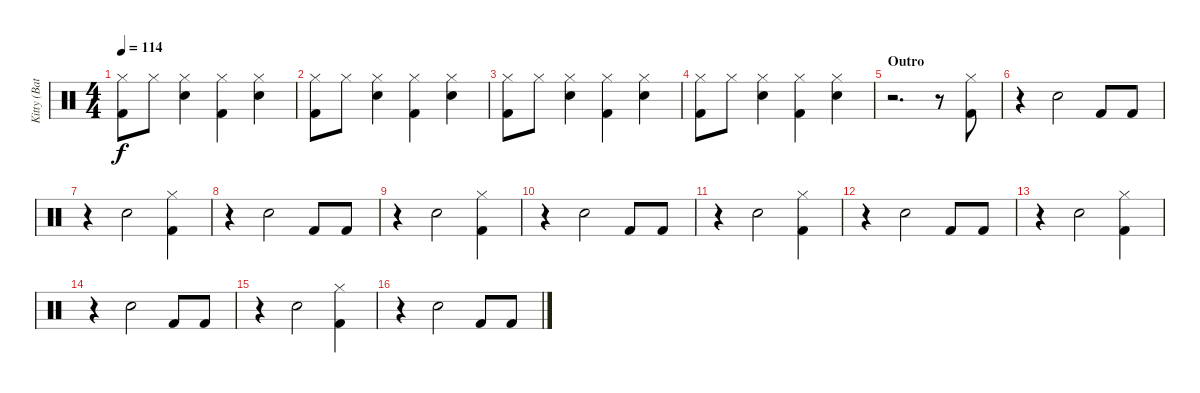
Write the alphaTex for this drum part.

\track ("Kitty (Bataca)" "Kitty (Bat") {instrument percussion}
\staff {score}
\articulation defaults
\ts (4 4)
\tempo 114
\clef neutral
\ks c
("Hi-Hat (closed)" "Kick (hit) 2").8{dy f} "Hi-Hat (closed)".8 ("Hi-Hat (closed)" "Snare (hit) 2").4 ("Hi-Hat (closed)" "Kick (hit) 2").4 ("Hi-Hat (closed)" "Snare (hit) 2").4 |
("Hi-Hat (closed)" "Kick (hit) 2").8 "Hi-Hat (closed)".8 ("Hi-Hat (closed)" "Snare (hit) 2").4 ("Hi-Hat (closed)" "Kick (hit) 2").4 ("Hi-Hat (closed)" "Snare (hit) 2").4 |
("Hi-Hat (closed)" "Kick (hit) 2").8 "Hi-Hat (closed)".8 ("Hi-Hat (closed)" "Snare (hit) 2").4 ("Hi-Hat (closed)" "Kick (hit) 2").4 ("Hi-Hat (closed)" "Snare (hit) 2").4 |
("Hi-Hat (closed)" "Kick (hit) 2").8 "Hi-Hat (closed)".8 ("Hi-Hat (closed)" "Snare (hit) 2").4 ("Hi-Hat (closed)" "Kick (hit) 2").4 ("Hi-Hat (closed)" "Snare (hit) 2").4 |
\section ("" "Outro")
r.2{d} r.8 ("Hi-Hat (closed)" "Kick (hit) 2").8 |
r.4 "Electric Snare (hit)".2 "Kick (hit) 2".8 "Kick (hit) 2".8 |
r.4 "Electric Snare (hit)".2 ("Hi-Hat (closed)" "Kick (hit) 2").4 |
r.4 "Electric Snare (hit)".2 "Kick (hit) 2".8 "Kick (hit) 2".8 |
r.4 "Electric Snare (hit)".2 ("Hi-Hat (closed)" "Kick (hit) 2").4 |
r.4 "Electric Snare (hit)".2 "Kick (hit) 2".8 "Kick (hit) 2".8 |
r.4 "Electric Snare (hit)".2 ("Hi-Hat (closed)" "Kick (hit) 2").4 |
r.4 "Electric Snare (hit)".2 "Kick (hit) 2".8 "Kick (hit) 2".8 |
r.4 "Electric Snare (hit)".2 ("Hi-Hat (closed)" "Kick (hit) 2").4 |
r.4 "Electric Snare (hit)".2 "Kick (hit) 2".8 "Kick (hit) 2".8 |
r.4 "Electric Snare (hit)".2 ("Hi-Hat (closed)" "Kick (hit) 2").4 |
r.4 "Electric Snare (hit)".2 "Kick (hit) 2".8 "Kick (hit) 2".8
